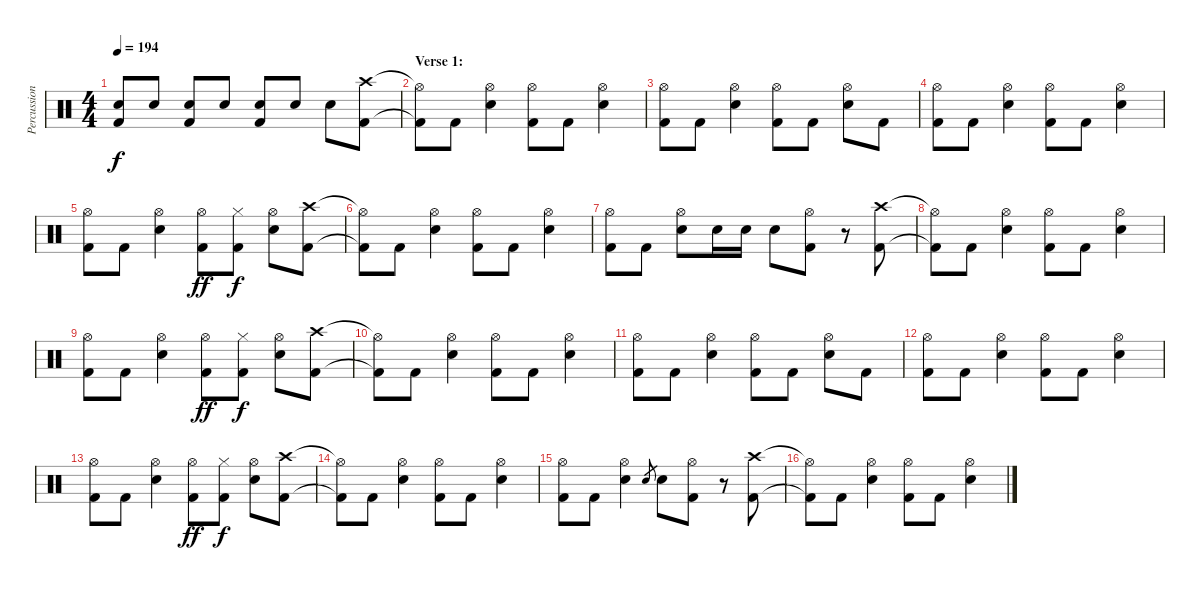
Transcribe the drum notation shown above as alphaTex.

\track ("Percussion" "Percussion") {instrument percussion}
\staff {score}
\articulation defaults
\ts (4 4)
\tempo 194
\clef neutral
\ks c
("Electric Snare (hit)" "Kick (hit) 2").8{dy f} "Electric Snare (hit)".8 ("Electric Snare (hit)" "Kick (hit) 2").8 "Electric Snare (hit)".8 ("Electric Snare (hit)" "Kick (hit) 2").8 "Electric Snare (hit)".8 "Electric Snare (hit)".8 ("Crash high (hit)" "Kick (hit) 2").8 |
\section ("" "Verse 1:")
("Hi-Hat (open)"{t} "Kick (hit) 2"{t}).8 "Kick (hit) 2".8 ("Hi-Hat (open)" "Electric Snare (hit)").4 ("Hi-Hat (open)" "Kick (hit) 2").8 "Kick (hit) 2".8 ("Hi-Hat (open)" "Electric Snare (hit)").4 |
("Hi-Hat (open)" "Kick (hit) 2").8 "Kick (hit) 2".8 ("Hi-Hat (open)" "Electric Snare (hit)").4 ("Hi-Hat (open)" "Kick (hit) 2").8 "Kick (hit) 2".8 ("Hi-Hat (open)" "Electric Snare (hit)").8 "Kick (hit) 2".8 |
("Hi-Hat (open)" "Kick (hit) 2").8 "Kick (hit) 2".8 ("Hi-Hat (open)" "Electric Snare (hit)").4 ("Hi-Hat (open)" "Kick (hit) 2").8 "Kick (hit) 2".8 ("Hi-Hat (open)" "Electric Snare (hit)").4 |
("Hi-Hat (open)" "Kick (hit) 2").8 "Kick (hit) 2".8 ("Hi-Hat (open)" "Electric Snare (hit)").4 ("Hi-Hat (open)" "Kick (hit) 2").8{dy ff} ("Hi-Hat (closed)" "Kick (hit) 2").8{dy f} ("Hi-Hat (open)" "Electric Snare (hit)").8 ("Crash high (hit)" "Kick (hit) 2").8 |
("Hi-Hat (open)"{t} "Kick (hit) 2"{t}).8 "Kick (hit) 2".8 ("Hi-Hat (open)" "Electric Snare (hit)").4 ("Hi-Hat (open)" "Kick (hit) 2").8 "Kick (hit) 2".8 ("Hi-Hat (open)" "Electric Snare (hit)").4 |
("Hi-Hat (open)" "Kick (hit) 2").8 "Kick (hit) 2".8 ("Hi-Hat (open)" "Electric Snare (hit)").8 "Electric Snare (hit)".16 "Electric Snare (hit)".16 "Electric Snare (hit)".8 ("Hi-Hat (open)" "Kick (hit) 2").8 r.8 ("Crash high (hit)" "Kick (hit) 2").8 |
("Hi-Hat (open)"{t} "Kick (hit) 2"{t}).8 "Kick (hit) 2".8 ("Hi-Hat (open)" "Electric Snare (hit)").4 ("Hi-Hat (open)" "Kick (hit) 2").8 "Kick (hit) 2".8 ("Hi-Hat (open)" "Electric Snare (hit)").4 |
("Hi-Hat (open)" "Kick (hit) 2").8 "Kick (hit) 2".8 ("Hi-Hat (open)" "Electric Snare (hit)").4 ("Hi-Hat (open)" "Kick (hit) 2").8{dy ff} ("Hi-Hat (closed)" "Kick (hit) 2").8{dy f} ("Hi-Hat (open)" "Electric Snare (hit)").8 ("Crash high (hit)" "Kick (hit) 2").8 |
("Hi-Hat (open)"{t} "Kick (hit) 2"{t}).8 "Kick (hit) 2".8 ("Hi-Hat (open)" "Electric Snare (hit)").4 ("Hi-Hat (open)" "Kick (hit) 2").8 "Kick (hit) 2".8 ("Hi-Hat (open)" "Electric Snare (hit)").4 |
("Hi-Hat (open)" "Kick (hit) 2").8 "Kick (hit) 2".8 ("Hi-Hat (open)" "Electric Snare (hit)").4 ("Hi-Hat (open)" "Kick (hit) 2").8 "Kick (hit) 2".8 ("Hi-Hat (open)" "Electric Snare (hit)").8 "Kick (hit) 2".8 |
("Hi-Hat (open)" "Kick (hit) 2").8 "Kick (hit) 2".8 ("Hi-Hat (open)" "Electric Snare (hit)").4 ("Hi-Hat (open)" "Kick (hit) 2").8 "Kick (hit) 2".8 ("Hi-Hat (open)" "Electric Snare (hit)").4 |
("Hi-Hat (open)" "Kick (hit) 2").8 "Kick (hit) 2".8 ("Hi-Hat (open)" "Electric Snare (hit)").4 ("Hi-Hat (open)" "Kick (hit) 2").8{dy ff} ("Hi-Hat (closed)" "Kick (hit) 2").8{dy f} ("Hi-Hat (open)" "Electric Snare (hit)").8 ("Crash high (hit)" "Kick (hit) 2").8 |
("Hi-Hat (open)"{t} "Kick (hit) 2"{t}).8 "Kick (hit) 2".8 ("Hi-Hat (open)" "Electric Snare (hit)").4 ("Hi-Hat (open)" "Kick (hit) 2").8 "Kick (hit) 2".8 ("Hi-Hat (open)" "Electric Snare (hit)").4 |
("Hi-Hat (open)" "Kick (hit) 2").8 "Kick (hit) 2".8 ("Hi-Hat (open)" "Electric Snare (hit)").4 "Electric Snare (hit)".8{gr} "Electric Snare (hit)".8 ("Hi-Hat (open)" "Kick (hit) 2").8 r.8 ("Crash high (hit)" "Kick (hit) 2").8 |
("Hi-Hat (open)"{t} "Kick (hit) 2"{t}).8 "Kick (hit) 2".8 ("Hi-Hat (open)" "Electric Snare (hit)").4 ("Hi-Hat (open)" "Kick (hit) 2").8 "Kick (hit) 2".8 ("Hi-Hat (open)" "Electric Snare (hit)").4
